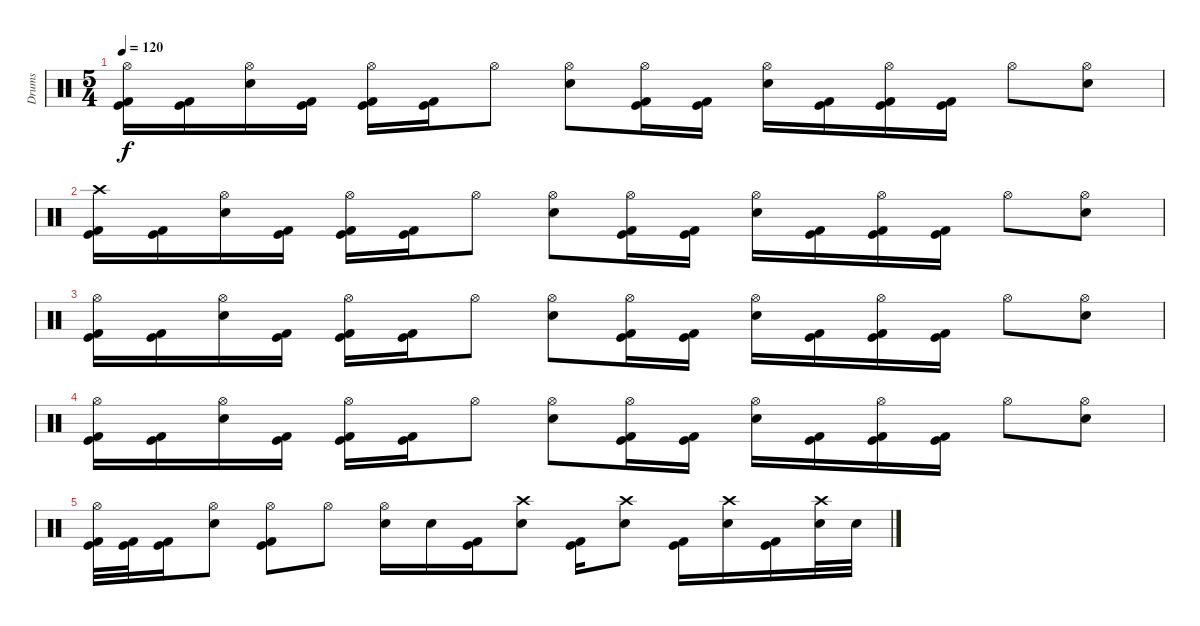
\track ("Drums" "Drums") {instrument percussion}
\staff {score}
\articulation defaults
\ts (5 4)
\tempo 120
\clef neutral
\ks c
("Hi-Hat (open)" "Kick (hit) 2" "Kick (hit)").16{dy f} ("Kick (hit) 2" "Kick (hit)").16 ("Hi-Hat (open)" "Electric Snare (hit)").16 ("Kick (hit) 2" "Kick (hit)").16 ("Hi-Hat (open)" "Kick (hit) 2" "Kick (hit)").16 ("Kick (hit) 2" "Kick (hit)").16 "Hi-Hat (open)".8 ("Hi-Hat (open)" "Electric Snare (hit)").8 ("Hi-Hat (open)" "Kick (hit) 2" "Kick (hit)").16 ("Kick (hit) 2" "Kick (hit)").16 ("Hi-Hat (open)" "Electric Snare (hit)").16 ("Kick (hit) 2" "Kick (hit)").16 ("Hi-Hat (open)" "Kick (hit) 2" "Kick (hit)").16 ("Kick (hit) 2" "Kick (hit)").16 "Hi-Hat (open)".8 ("Hi-Hat (open)" "Electric Snare (hit)").8 |
("Crash high (hit)" "Kick (hit) 2" "Kick (hit)").16 ("Kick (hit) 2" "Kick (hit)").16 ("Hi-Hat (open)" "Electric Snare (hit)").16 ("Kick (hit) 2" "Kick (hit)").16 ("Hi-Hat (open)" "Kick (hit) 2" "Kick (hit)").16 ("Kick (hit) 2" "Kick (hit)").16 "Hi-Hat (open)".8 ("Hi-Hat (open)" "Electric Snare (hit)").8 ("Hi-Hat (open)" "Kick (hit) 2" "Kick (hit)").16 ("Kick (hit) 2" "Kick (hit)").16 ("Hi-Hat (open)" "Electric Snare (hit)").16 ("Kick (hit) 2" "Kick (hit)").16 ("Hi-Hat (open)" "Kick (hit) 2" "Kick (hit)").16 ("Kick (hit) 2" "Kick (hit)").16 "Hi-Hat (open)".8 ("Hi-Hat (open)" "Electric Snare (hit)").8 |
("Hi-Hat (open)" "Kick (hit) 2" "Kick (hit)").16 ("Kick (hit) 2" "Kick (hit)").16 ("Hi-Hat (open)" "Electric Snare (hit)").16 ("Kick (hit) 2" "Kick (hit)").16 ("Hi-Hat (open)" "Kick (hit) 2" "Kick (hit)").16 ("Kick (hit) 2" "Kick (hit)").16 "Hi-Hat (open)".8 ("Hi-Hat (open)" "Electric Snare (hit)").8 ("Hi-Hat (open)" "Kick (hit) 2" "Kick (hit)").16 ("Kick (hit) 2" "Kick (hit)").16 ("Hi-Hat (open)" "Electric Snare (hit)").16 ("Kick (hit) 2" "Kick (hit)").16 ("Hi-Hat (open)" "Kick (hit) 2" "Kick (hit)").16 ("Kick (hit) 2" "Kick (hit)").16 "Hi-Hat (open)".8 ("Hi-Hat (open)" "Electric Snare (hit)").8 |
("Hi-Hat (open)" "Kick (hit) 2" "Kick (hit)").16 ("Kick (hit) 2" "Kick (hit)").16 ("Hi-Hat (open)" "Electric Snare (hit)").16 ("Kick (hit) 2" "Kick (hit)").16 ("Hi-Hat (open)" "Kick (hit) 2" "Kick (hit)").16 ("Kick (hit) 2" "Kick (hit)").16 "Hi-Hat (open)".8 ("Hi-Hat (open)" "Electric Snare (hit)").8 ("Hi-Hat (open)" "Kick (hit) 2" "Kick (hit)").16 ("Kick (hit) 2" "Kick (hit)").16 ("Hi-Hat (open)" "Electric Snare (hit)").16 ("Kick (hit) 2" "Kick (hit)").16 ("Hi-Hat (open)" "Kick (hit) 2" "Kick (hit)").16 ("Kick (hit) 2" "Kick (hit)").16 "Hi-Hat (open)".8 ("Hi-Hat (open)" "Electric Snare (hit)").8 |
("Hi-Hat (open)" "Kick (hit) 2" "Kick (hit)").32 ("Kick (hit) 2" "Kick (hit)").32 ("Kick (hit) 2" "Kick (hit)").16 ("Hi-Hat (open)" "Electric Snare (hit)").8 ("Hi-Hat (open)" "Kick (hit) 2" "Kick (hit)").8 "Hi-Hat (open)".8 ("Hi-Hat (open)" "Electric Snare (hit)").16 "Electric Snare (hit)".16 ("Kick (hit) 2" "Kick (hit)").16 ("Crash high (hit)" "Electric Snare (hit)").8 ("Kick (hit) 2" "Kick (hit)").16 ("Crash high (hit)" "Electric Snare (hit)").8 ("Kick (hit) 2" "Kick (hit)").16 ("Crash high (hit)" "Electric Snare (hit)").16 ("Kick (hit) 2" "Kick (hit)").16 ("Crash high (hit)" "Electric Snare (hit)").32 "Electric Snare (hit)".32
